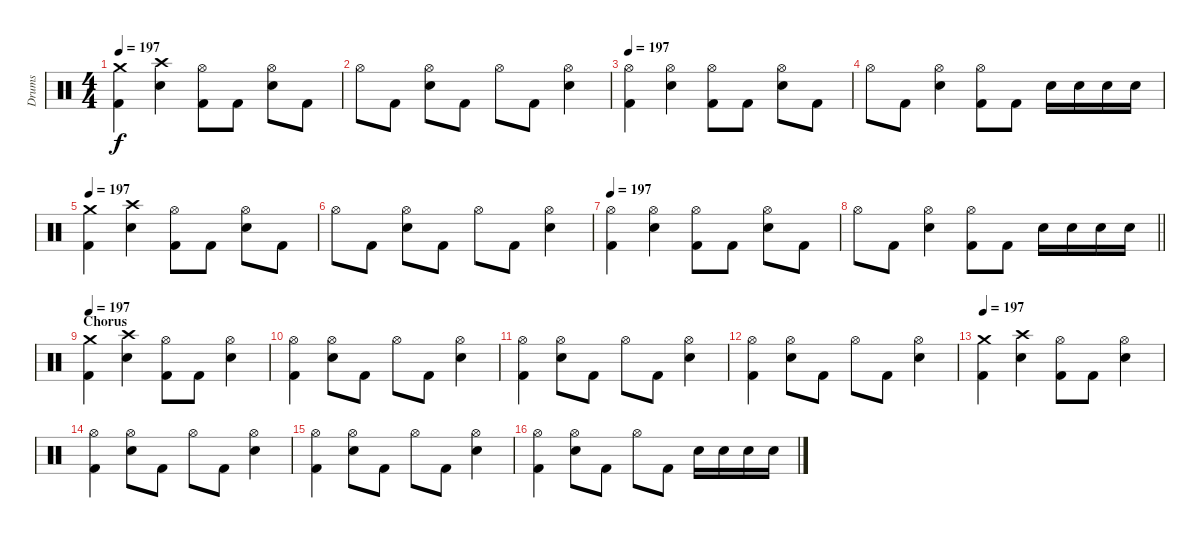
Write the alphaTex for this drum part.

\track ("Drums" "Drums") {instrument percussion}
\staff {score}
\articulation defaults
\ts (4 4)
\tempo 197
\clef neutral
\ks c
("Crash medium (hit)" "Kick (hit) 2").4{dy f} ("Crash high (hit)" "Electric Snare (hit)").4 ("Hi-Hat (open)" "Kick (hit) 2").8 "Kick (hit) 2".8 ("Hi-Hat (open)" "Electric Snare (hit)").8 "Kick (hit) 2".8 |
"Hi-Hat (open)".8 "Kick (hit) 2".8 ("Hi-Hat (open)" "Electric Snare (hit)").8 "Kick (hit) 2".8 "Hi-Hat (open)".8 "Kick (hit) 2".8 ("Hi-Hat (open)" "Electric Snare (hit)").4 |
\tempo 197
("Hi-Hat (open)" "Kick (hit) 2").4 ("Hi-Hat (open)" "Electric Snare (hit)").4 ("Hi-Hat (open)" "Kick (hit) 2").8 "Kick (hit) 2".8 ("Hi-Hat (open)" "Electric Snare (hit)").8 "Kick (hit) 2".8 |
"Hi-Hat (open)".8 "Kick (hit) 2".8 ("Hi-Hat (open)" "Electric Snare (hit)").4 ("Hi-Hat (open)" "Kick (hit) 2").8 "Kick (hit) 2".8 "Electric Snare (hit)".16 "Electric Snare (hit)".16 "Electric Snare (hit)".16 "Electric Snare (hit)".16 |
\tempo 197
("Crash medium (hit)" "Kick (hit) 2").4 ("Crash high (hit)" "Electric Snare (hit)").4 ("Hi-Hat (open)" "Kick (hit) 2").8 "Kick (hit) 2".8 ("Hi-Hat (open)" "Electric Snare (hit)").8 "Kick (hit) 2".8 |
"Hi-Hat (open)".8 "Kick (hit) 2".8 ("Hi-Hat (open)" "Electric Snare (hit)").8 "Kick (hit) 2".8 "Hi-Hat (open)".8 "Kick (hit) 2".8 ("Hi-Hat (open)" "Electric Snare (hit)").4 |
\tempo 197
("Hi-Hat (open)" "Kick (hit) 2").4 ("Hi-Hat (open)" "Electric Snare (hit)").4 ("Hi-Hat (open)" "Kick (hit) 2").8 "Kick (hit) 2".8 ("Hi-Hat (open)" "Electric Snare (hit)").8 "Kick (hit) 2".8 |
\barLineRight lightlight "Hi-Hat (open)".8 "Kick (hit) 2".8
("Hi-Hat (open)" "Electric Snare (hit)").4 ("Hi-Hat (open)" "Kick (hit) 2").8 "Kick (hit) 2".8 "Electric Snare (hit)".16 "Electric Snare (hit)".16 "Electric Snare (hit)".16 "Electric Snare (hit)".16 |
\section ("" "Chorus")
\tempo 197
("Crash medium (hit)" "Kick (hit) 2").4 ("Crash high (hit)" "Electric Snare (hit)").4 ("Hi-Hat (open)" "Kick (hit) 2").8 "Kick (hit) 2".8 ("Hi-Hat (open)" "Electric Snare (hit)").4 |
("Hi-Hat (open)" "Kick (hit) 2").4 ("Hi-Hat (open)" "Electric Snare (hit)").8 "Kick (hit) 2".8 "Hi-Hat (open)".8 "Kick (hit) 2".8 ("Hi-Hat (open)" "Electric Snare (hit)").4 |
("Hi-Hat (open)" "Kick (hit) 2").4 ("Hi-Hat (open)" "Electric Snare (hit)").8 "Kick (hit) 2".8 "Hi-Hat (open)".8 "Kick (hit) 2".8 ("Hi-Hat (open)" "Electric Snare (hit)").4 |
("Hi-Hat (open)" "Kick (hit) 2").4 ("Hi-Hat (open)" "Electric Snare (hit)").8 "Kick (hit) 2".8 "Hi-Hat (open)".8 "Kick (hit) 2".8 ("Hi-Hat (open)" "Electric Snare (hit)").4 |
\tempo 197
("Crash medium (hit)" "Kick (hit) 2").4 ("Crash high (hit)" "Electric Snare (hit)").4 ("Hi-Hat (open)" "Kick (hit) 2").8 "Kick (hit) 2".8 ("Hi-Hat (open)" "Electric Snare (hit)").4 |
("Hi-Hat (open)" "Kick (hit) 2").4 ("Hi-Hat (open)" "Electric Snare (hit)").8 "Kick (hit) 2".8 "Hi-Hat (open)".8 "Kick (hit) 2".8 ("Hi-Hat (open)" "Electric Snare (hit)").4 |
("Hi-Hat (open)" "Kick (hit) 2").4 ("Hi-Hat (open)" "Electric Snare (hit)").8 "Kick (hit) 2".8 "Hi-Hat (open)".8 "Kick (hit) 2".8 ("Hi-Hat (open)" "Electric Snare (hit)").4 |
("Hi-Hat (open)" "Kick (hit) 2").4 ("Hi-Hat (open)" "Electric Snare (hit)").8 "Kick (hit) 2".8 "Hi-Hat (open)".8 "Kick (hit) 2".8 "Electric Snare (hit)".16 "Electric Snare (hit)".16 "Electric Snare (hit)".16 "Electric Snare (hit)".16
